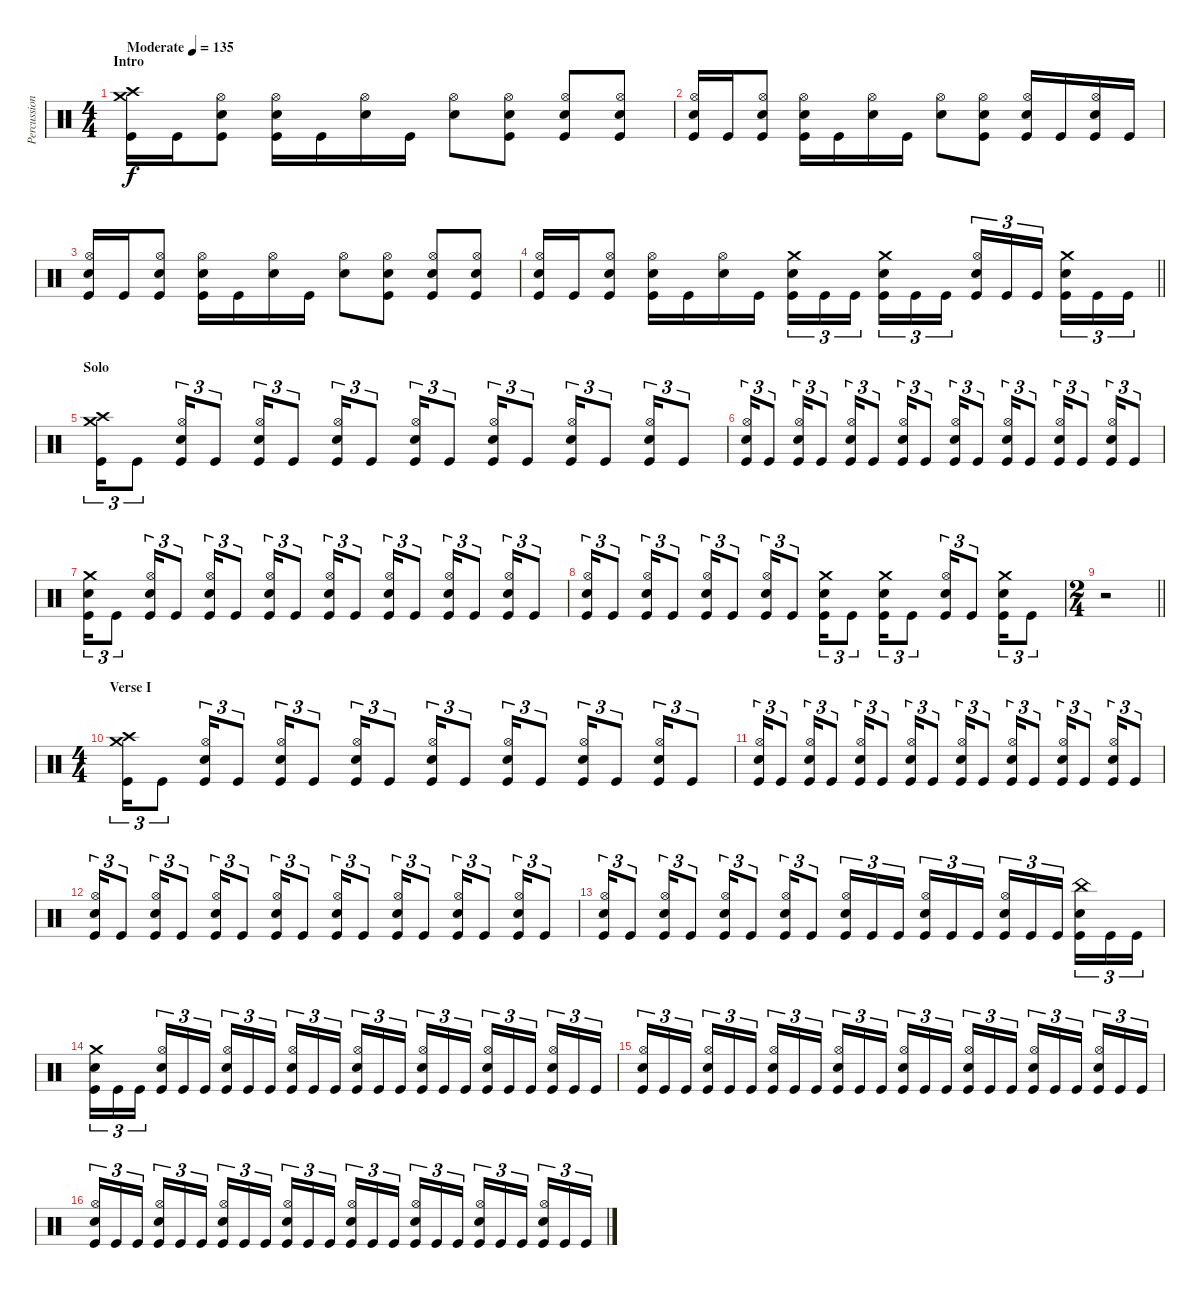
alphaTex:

\track ("Percussion" "Percussion") {instrument percussion}
\staff {score}
\articulation defaults
\ts (4 4)
\section ("" "Intro")
\tempo (135 "Moderate")
\clef neutral
\ks c
("Crash high (hit)" "Crash medium (hit)" "Kick (hit)").16{dy f} "Kick (hit)".16 ("Hi-Hat (open)" "Electric Snare (hit)" "Kick (hit)").8 ("Hi-Hat (open)" "Electric Snare (hit)" "Kick (hit)").16 "Kick (hit)".16 ("Hi-Hat (open)" "Electric Snare (hit)").16 "Kick (hit)".16 ("Hi-Hat (open)" "Electric Snare (hit)").8 ("Hi-Hat (open)" "Electric Snare (hit)" "Kick (hit)").8 ("Hi-Hat (open)" "Electric Snare (hit)" "Kick (hit)").8 ("Hi-Hat (open)" "Electric Snare (hit)" "Kick (hit)").8 |
("Hi-Hat (open)" "Electric Snare (hit)" "Kick (hit)").16 "Kick (hit)".16 ("Hi-Hat (open)" "Electric Snare (hit)" "Kick (hit)").8 ("Hi-Hat (open)" "Electric Snare (hit)" "Kick (hit)").16 "Kick (hit)".16 ("Hi-Hat (open)" "Electric Snare (hit)").16 "Kick (hit)".16 ("Hi-Hat (open)" "Electric Snare (hit)").8 ("Hi-Hat (open)" "Electric Snare (hit)" "Kick (hit)").8 ("Hi-Hat (open)" "Electric Snare (hit)" "Kick (hit)").16 "Kick (hit)".16 ("Hi-Hat (open)" "Electric Snare (hit)" "Kick (hit)").16 "Kick (hit)".16 |
("Hi-Hat (open)" "Electric Snare (hit)" "Kick (hit)").16 "Kick (hit)".16 ("Hi-Hat (open)" "Electric Snare (hit)" "Kick (hit)").8 ("Hi-Hat (open)" "Electric Snare (hit)" "Kick (hit)").16 "Kick (hit)".16 ("Hi-Hat (open)" "Electric Snare (hit)").16 "Kick (hit)".16 ("Hi-Hat (open)" "Electric Snare (hit)").8 ("Hi-Hat (open)" "Electric Snare (hit)" "Kick (hit)").8 ("Hi-Hat (open)" "Electric Snare (hit)" "Kick (hit)").8 ("Hi-Hat (open)" "Electric Snare (hit)" "Kick (hit)").8 |
\barLineRight lightlight
("Hi-Hat (open)" "Electric Snare (hit)" "Kick (hit)").16 "Kick (hit)".16 ("Hi-Hat (open)" "Electric Snare (hit)" "Kick (hit)").8 ("Hi-Hat (open)" "Electric Snare (hit)" "Kick (hit)").16 "Kick (hit)".16 ("Hi-Hat (open)" "Electric Snare (hit)").16 "Kick (hit)".16 ("Crash medium (hit)" "Electric Snare (hit)" "Kick (hit)").16{tu (3 2)} "Kick (hit)".16{tu (3 2)} "Kick (hit)".16{tu (3 2) beam splitsecondary} ("Crash medium (hit)" "Electric Snare (hit)" "Kick (hit)").16{tu (3 2)} "Kick (hit)".16{tu (3 2)} "Kick (hit)".16{tu (3 2)} ("Hi-Hat (open)" "Electric Snare (hit)" "Kick (hit)").16{tu (3 2)} "Kick (hit)".16{tu (3 2)} "Kick (hit)".16{tu (3 2) beam splitsecondary} ("Crash medium (hit)" "Electric Snare (hit)" "Kick (hit)").16{tu (3 2)} "Kick (hit)".16{tu (3 2)} "Kick (hit)".16{tu (3 2)} |
\section ("" "Solo")
("Crash high (hit)" "Crash medium (hit)" "Kick (hit)").16{tu (3 2)} "Kick (hit)".8{tu (3 2)} ("Hi-Hat (open)" "Electric Snare (hit)" "Kick (hit)").16{tu (3 2)} "Kick (hit)".8{tu (3 2)} ("Hi-Hat (open)" "Electric Snare (hit)" "Kick (hit)").16{tu (3 2)} "Kick (hit)".8{tu (3 2)} ("Hi-Hat (open)" "Electric Snare (hit)" "Kick (hit)").16{tu (3 2)} "Kick (hit)".8{tu (3 2)} ("Hi-Hat (open)" "Electric Snare (hit)" "Kick (hit)").16{tu (3 2)} "Kick (hit)".8{tu (3 2)} ("Hi-Hat (open)" "Electric Snare (hit)" "Kick (hit)").16{tu (3 2)} "Kick (hit)".8{tu (3 2)} ("Hi-Hat (open)" "Electric Snare (hit)" "Kick (hit)").16{tu (3 2)} "Kick (hit)".8{tu (3 2)} ("Hi-Hat (open)" "Electric Snare (hit)" "Kick (hit)").16{tu (3 2)} "Kick (hit)".8{tu (3 2)} |
("Hi-Hat (open)" "Electric Snare (hit)" "Kick (hit)").16{tu (3 2)} "Kick (hit)".8{tu (3 2)} ("Hi-Hat (open)" "Electric Snare (hit)" "Kick (hit)").16{tu (3 2)} "Kick (hit)".8{tu (3 2)} ("Hi-Hat (open)" "Electric Snare (hit)" "Kick (hit)").16{tu (3 2)} "Kick (hit)".8{tu (3 2)} ("Hi-Hat (open)" "Electric Snare (hit)" "Kick (hit)").16{tu (3 2)} "Kick (hit)".8{tu (3 2)} ("Hi-Hat (open)" "Electric Snare (hit)" "Kick (hit)").16{tu (3 2)} "Kick (hit)".8{tu (3 2)} ("Hi-Hat (open)" "Electric Snare (hit)" "Kick (hit)").16{tu (3 2)} "Kick (hit)".8{tu (3 2)} ("Hi-Hat (open)" "Electric Snare (hit)" "Kick (hit)").16{tu (3 2)} "Kick (hit)".8{tu (3 2)} ("Hi-Hat (open)" "Electric Snare (hit)" "Kick (hit)").16{tu (3 2)} "Kick (hit)".8{tu (3 2)} |
("Crash medium (hit)" "Electric Snare (hit)" "Kick (hit)").16{tu (3 2)} "Kick (hit)".8{tu (3 2)} ("Hi-Hat (open)" "Electric Snare (hit)" "Kick (hit)").16{tu (3 2)} "Kick (hit)".8{tu (3 2)} ("Hi-Hat (open)" "Electric Snare (hit)" "Kick (hit)").16{tu (3 2)} "Kick (hit)".8{tu (3 2)} ("Hi-Hat (open)" "Electric Snare (hit)" "Kick (hit)").16{tu (3 2)} "Kick (hit)".8{tu (3 2)} ("Hi-Hat (open)" "Electric Snare (hit)" "Kick (hit)").16{tu (3 2)} "Kick (hit)".8{tu (3 2)} ("Hi-Hat (open)" "Electric Snare (hit)" "Kick (hit)").16{tu (3 2)} "Kick (hit)".8{tu (3 2)} ("Hi-Hat (open)" "Electric Snare (hit)" "Kick (hit)").16{tu (3 2)} "Kick (hit)".8{tu (3 2)} ("Hi-Hat (open)" "Electric Snare (hit)" "Kick (hit)").16{tu (3 2)} "Kick (hit)".8{tu (3 2)} |
("Hi-Hat (open)" "Electric Snare (hit)" "Kick (hit)").16{tu (3 2)} "Kick (hit)".8{tu (3 2)} ("Hi-Hat (open)" "Electric Snare (hit)" "Kick (hit)").16{tu (3 2)} "Kick (hit)".8{tu (3 2)} ("Hi-Hat (open)" "Electric Snare (hit)" "Kick (hit)").16{tu (3 2)} "Kick (hit)".8{tu (3 2)} ("Hi-Hat (open)" "Electric Snare (hit)" "Kick (hit)").16{tu (3 2)} "Kick (hit)".8{tu (3 2)} ("Crash medium (hit)" "Electric Snare (hit)" "Kick (hit)").16{tu (3 2)} "Kick (hit)".8{tu (3 2)} ("Crash medium (hit)" "Electric Snare (hit)" "Kick (hit)").16{tu (3 2)} "Kick (hit)".8{tu (3 2)} ("Hi-Hat (open)" "Electric Snare (hit)" "Kick (hit)").16{tu (3 2)} "Kick (hit)".8{tu (3 2)} ("Crash medium (hit)" "Electric Snare (hit)" "Kick (hit)").16{tu (3 2)} "Kick (hit)".8{tu (3 2)} |
\ts (2 4)
\barLineRight lightlight
r.2 |
\ts (4 4)
\section ("" "Verse I")
("Crash high (hit)" "Crash medium (hit)" "Kick (hit)").16{tu (3 2)} "Kick (hit)".8{tu (3 2)} ("Hi-Hat (open)" "Electric Snare (hit)" "Kick (hit)").16{tu (3 2)} "Kick (hit)".8{tu (3 2)} ("Hi-Hat (open)" "Electric Snare (hit)" "Kick (hit)").16{tu (3 2)} "Kick (hit)".8{tu (3 2)} ("Hi-Hat (open)" "Electric Snare (hit)" "Kick (hit)").16{tu (3 2)} "Kick (hit)".8{tu (3 2)} ("Hi-Hat (open)" "Electric Snare (hit)" "Kick (hit)").16{tu (3 2)} "Kick (hit)".8{tu (3 2)} ("Hi-Hat (open)" "Electric Snare (hit)" "Kick (hit)").16{tu (3 2)} "Kick (hit)".8{tu (3 2)} ("Hi-Hat (open)" "Electric Snare (hit)" "Kick (hit)").16{tu (3 2)} "Kick (hit)".8{tu (3 2)} ("Hi-Hat (open)" "Electric Snare (hit)" "Kick (hit)").16{tu (3 2)} "Kick (hit)".8{tu (3 2)} |
("Hi-Hat (open)" "Electric Snare (hit)" "Kick (hit)").16{tu (3 2)} "Kick (hit)".8{tu (3 2)} ("Hi-Hat (open)" "Electric Snare (hit)" "Kick (hit)").16{tu (3 2)} "Kick (hit)".8{tu (3 2)} ("Hi-Hat (open)" "Electric Snare (hit)" "Kick (hit)").16{tu (3 2)} "Kick (hit)".8{tu (3 2)} ("Hi-Hat (open)" "Electric Snare (hit)" "Kick (hit)").16{tu (3 2)} "Kick (hit)".8{tu (3 2)} ("Hi-Hat (open)" "Electric Snare (hit)" "Kick (hit)").16{tu (3 2)} "Kick (hit)".8{tu (3 2)} ("Hi-Hat (open)" "Electric Snare (hit)" "Kick (hit)").16{tu (3 2)} "Kick (hit)".8{tu (3 2)} ("Hi-Hat (open)" "Electric Snare (hit)" "Kick (hit)").16{tu (3 2)} "Kick (hit)".8{tu (3 2)} ("Hi-Hat (open)" "Electric Snare (hit)" "Kick (hit)").16{tu (3 2)} "Kick (hit)".8{tu (3 2)} |
("Hi-Hat (open)" "Electric Snare (hit)" "Kick (hit)").16{tu (3 2)} "Kick (hit)".8{tu (3 2)} ("Hi-Hat (open)" "Electric Snare (hit)" "Kick (hit)").16{tu (3 2)} "Kick (hit)".8{tu (3 2)} ("Hi-Hat (open)" "Electric Snare (hit)" "Kick (hit)").16{tu (3 2)} "Kick (hit)".8{tu (3 2)} ("Hi-Hat (open)" "Electric Snare (hit)" "Kick (hit)").16{tu (3 2)} "Kick (hit)".8{tu (3 2)} ("Hi-Hat (open)" "Electric Snare (hit)" "Kick (hit)").16{tu (3 2)} "Kick (hit)".8{tu (3 2)} ("Hi-Hat (open)" "Electric Snare (hit)" "Kick (hit)").16{tu (3 2)} "Kick (hit)".8{tu (3 2)} ("Hi-Hat (open)" "Electric Snare (hit)" "Kick (hit)").16{tu (3 2)} "Kick (hit)".8{tu (3 2)} ("Hi-Hat (open)" "Electric Snare (hit)" "Kick (hit)").16{tu (3 2)} "Kick (hit)".8{tu (3 2)} |
("Hi-Hat (open)" "Electric Snare (hit)" "Kick (hit)").16{tu (3 2)} "Kick (hit)".8{tu (3 2)} ("Hi-Hat (open)" "Electric Snare (hit)" "Kick (hit)").16{tu (3 2)} "Kick (hit)".8{tu (3 2)} ("Hi-Hat (open)" "Electric Snare (hit)" "Kick (hit)").16{tu (3 2)} "Kick (hit)".8{tu (3 2)} ("Hi-Hat (open)" "Electric Snare (hit)" "Kick (hit)").16{tu (3 2)} "Kick (hit)".8{tu (3 2)} ("Hi-Hat (open)" "Electric Snare (hit)" "Kick (hit)").16{tu (3 2)} "Kick (hit)".16{tu (3 2)} "Kick (hit)".16{tu (3 2) beam splitsecondary} ("Hi-Hat (open)" "Electric Snare (hit)" "Kick (hit)").16{tu (3 2)} "Kick (hit)".16{tu (3 2)} "Kick (hit)".16{tu (3 2)} ("Hi-Hat (open)" "Electric Snare (hit)" "Kick (hit)").16{tu (3 2)} "Kick (hit)".16{tu (3 2)} "Kick (hit)".16{tu (3 2) beam splitsecondary} ("China (hit)" "Electric Snare (hit)" "Kick (hit)").16{tu (3 2)} "Kick (hit)".16{tu (3 2)} "Kick (hit)".16{tu (3 2)} |
("Crash medium (hit)" "Electric Snare (hit)" "Kick (hit)").16{tu (3 2)} "Kick (hit)".16{tu (3 2)} "Kick (hit)".16{tu (3 2) beam splitsecondary} ("Hi-Hat (open)" "Electric Snare (hit)" "Kick (hit)").16{tu (3 2)} "Kick (hit)".16{tu (3 2)} "Kick (hit)".16{tu (3 2)} ("Hi-Hat (open)" "Electric Snare (hit)" "Kick (hit)").16{tu (3 2)} "Kick (hit)".16{tu (3 2)} "Kick (hit)".16{tu (3 2) beam splitsecondary} ("Hi-Hat (open)" "Electric Snare (hit)" "Kick (hit)").16{tu (3 2)} "Kick (hit)".16{tu (3 2)} "Kick (hit)".16{tu (3 2)} ("Hi-Hat (open)" "Electric Snare (hit)" "Kick (hit)").16{tu (3 2)} "Kick (hit)".16{tu (3 2)} "Kick (hit)".16{tu (3 2) beam splitsecondary} ("Hi-Hat (open)" "Electric Snare (hit)" "Kick (hit)").16{tu (3 2)} "Kick (hit)".16{tu (3 2)} "Kick (hit)".16{tu (3 2)} ("Hi-Hat (open)" "Electric Snare (hit)" "Kick (hit)").16{tu (3 2)} "Kick (hit)".16{tu (3 2)} "Kick (hit)".16{tu (3 2) beam splitsecondary} ("Hi-Hat (open)" "Electric Snare (hit)" "Kick (hit)").16{tu (3 2)} "Kick (hit)".16{tu (3 2)} "Kick (hit)".16{tu (3 2)} |
("Hi-Hat (open)" "Electric Snare (hit)" "Kick (hit)").16{tu (3 2)} "Kick (hit)".16{tu (3 2)} "Kick (hit)".16{tu (3 2) beam splitsecondary} ("Hi-Hat (open)" "Electric Snare (hit)" "Kick (hit)").16{tu (3 2)} "Kick (hit)".16{tu (3 2)} "Kick (hit)".16{tu (3 2)} ("Hi-Hat (open)" "Electric Snare (hit)" "Kick (hit)").16{tu (3 2)} "Kick (hit)".16{tu (3 2)} "Kick (hit)".16{tu (3 2) beam splitsecondary} ("Hi-Hat (open)" "Electric Snare (hit)" "Kick (hit)").16{tu (3 2)} "Kick (hit)".16{tu (3 2)} "Kick (hit)".16{tu (3 2)} ("Hi-Hat (open)" "Electric Snare (hit)" "Kick (hit)").16{tu (3 2)} "Kick (hit)".16{tu (3 2)} "Kick (hit)".16{tu (3 2) beam splitsecondary} ("Hi-Hat (open)" "Electric Snare (hit)" "Kick (hit)").16{tu (3 2)} "Kick (hit)".16{tu (3 2)} "Kick (hit)".16{tu (3 2)} ("Hi-Hat (open)" "Electric Snare (hit)" "Kick (hit)").16{tu (3 2)} "Kick (hit)".16{tu (3 2)} "Kick (hit)".16{tu (3 2) beam splitsecondary} ("Hi-Hat (open)" "Electric Snare (hit)" "Kick (hit)").16{tu (3 2)} "Kick (hit)".16{tu (3 2)} "Kick (hit)".16{tu (3 2)} |
("Hi-Hat (open)" "Electric Snare (hit)" "Kick (hit)").16{tu (3 2)} "Kick (hit)".16{tu (3 2)} "Kick (hit)".16{tu (3 2) beam splitsecondary} ("Hi-Hat (open)" "Electric Snare (hit)" "Kick (hit)").16{tu (3 2)} "Kick (hit)".16{tu (3 2)} "Kick (hit)".16{tu (3 2)} ("Hi-Hat (open)" "Electric Snare (hit)" "Kick (hit)").16{tu (3 2)} "Kick (hit)".16{tu (3 2)} "Kick (hit)".16{tu (3 2) beam splitsecondary} ("Hi-Hat (open)" "Electric Snare (hit)" "Kick (hit)").16{tu (3 2)} "Kick (hit)".16{tu (3 2)} "Kick (hit)".16{tu (3 2)} ("Hi-Hat (open)" "Electric Snare (hit)" "Kick (hit)").16{tu (3 2)} "Kick (hit)".16{tu (3 2)} "Kick (hit)".16{tu (3 2) beam splitsecondary} ("Hi-Hat (open)" "Electric Snare (hit)" "Kick (hit)").16{tu (3 2)} "Kick (hit)".16{tu (3 2)} "Kick (hit)".16{tu (3 2)} ("Hi-Hat (open)" "Electric Snare (hit)" "Kick (hit)").16{tu (3 2)} "Kick (hit)".16{tu (3 2)} "Kick (hit)".16{tu (3 2) beam splitsecondary} ("Hi-Hat (open)" "Electric Snare (hit)" "Kick (hit)").16{tu (3 2)} "Kick (hit)".16{tu (3 2)} "Kick (hit)".16{tu (3 2)}
